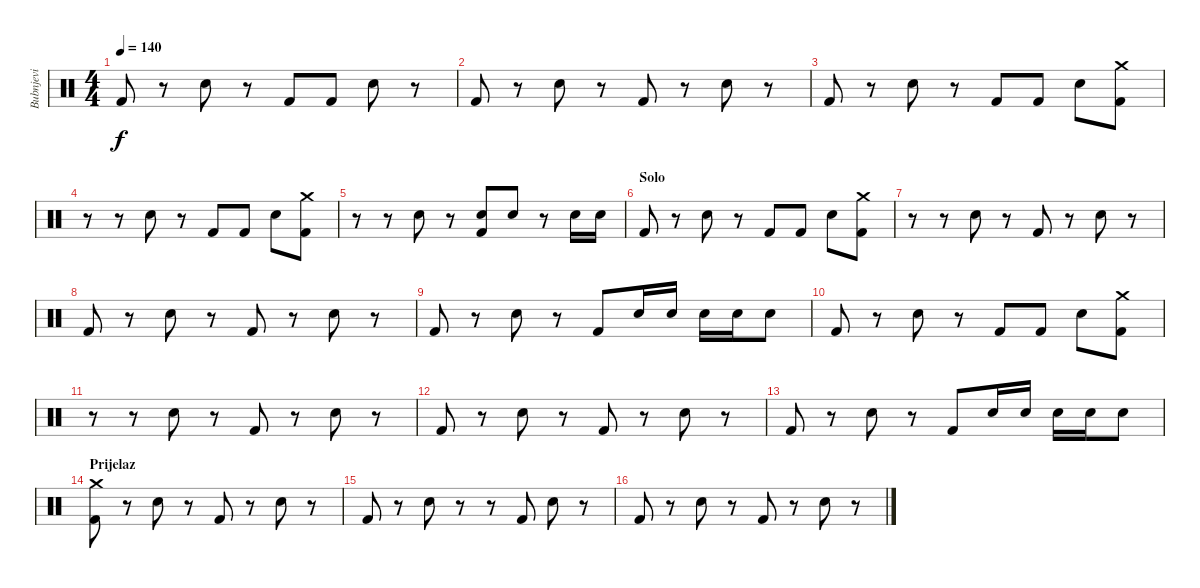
\track ("Bubnjevi" "Bubnjevi") {instrument percussion}
\staff {score}
\articulation defaults
\ts (4 4)
\tempo 140
\clef neutral
\ks c "Kick (hit) 2".8{dy f}
r.8 "Snare (hit) 2".8 r.8 "Kick (hit) 2".8 "Kick (hit) 2".8 "Snare (hit) 2".8 r.8 |
"Kick (hit) 2".8 r.8 "Snare (hit) 2".8 r.8 "Kick (hit) 2".8 r.8 "Snare (hit) 2".8 r.8 |
"Kick (hit) 2".8 r.8 "Snare (hit) 2".8 r.8 "Kick (hit) 2".8 "Kick (hit) 2".8 "Snare (hit) 2".8 ("Crash medium (hit)" "Kick (hit) 2").8 |
r.8 r.8 "Snare (hit) 2".8 r.8 "Kick (hit) 2".8 "Kick (hit) 2".8 "Snare (hit) 2".8 ("Crash medium (hit)" "Kick (hit) 2").8 |
r.8 r.8 "Snare (hit) 2".8 r.8 ("Snare (hit) 2" "Kick (hit) 2").8 "Snare (hit) 2".8 r.8 "Snare (hit) 2".16 "Snare (hit) 2".16 |
\section ("" "Solo")
"Kick (hit) 2".8 r.8 "Snare (hit) 2".8 r.8 "Kick (hit) 2".8 "Kick (hit) 2".8 "Snare (hit) 2".8 ("Crash medium (hit)" "Kick (hit) 2").8 |
r.8 r.8 "Snare (hit) 2".8 r.8 "Kick (hit) 2".8 r.8 "Snare (hit) 2".8 r.8 |
"Kick (hit) 2".8 r.8 "Snare (hit) 2".8 r.8 "Kick (hit) 2".8 r.8 "Snare (hit) 2".8 r.8 |
"Kick (hit) 2".8 r.8 "Snare (hit) 2".8 r.8 "Kick (hit) 2".8 "Snare (hit) 2".16 "Snare (hit) 2".16 "Snare (hit) 2".16 "Snare (hit) 2".16 "Snare (hit) 2".8 |
"Kick (hit) 2".8 r.8 "Snare (hit) 2".8 r.8 "Kick (hit) 2".8 "Kick (hit) 2".8 "Snare (hit) 2".8 ("Crash medium (hit)" "Kick (hit) 2").8 |
r.8 r.8 "Snare (hit) 2".8 r.8 "Kick (hit) 2".8 r.8 "Snare (hit) 2".8 r.8 |
"Kick (hit) 2".8 r.8 "Snare (hit) 2".8 r.8 "Kick (hit) 2".8 r.8 "Snare (hit) 2".8 r.8 |
"Kick (hit) 2".8 r.8 "Snare (hit) 2".8 r.8 "Kick (hit) 2".8 "Snare (hit) 2".16 "Snare (hit) 2".16 "Snare (hit) 2".16 "Snare (hit) 2".16 "Snare (hit) 2".8 |
\section ("" "Prijelaz")
("Crash medium (hit)" "Kick (hit) 2").8 r.8 "Snare (hit) 2".8 r.8 "Kick (hit) 2".8 r.8 "Snare (hit) 2".8 r.8 |
"Kick (hit) 2".8 r.8 "Snare (hit) 2".8 r.8 r.8 "Kick (hit) 2".8 "Snare (hit) 2".8 r.8 |
"Kick (hit) 2".8 r.8 "Snare (hit) 2".8 r.8 "Kick (hit) 2".8 r.8 "Snare (hit) 2".8 r.8
